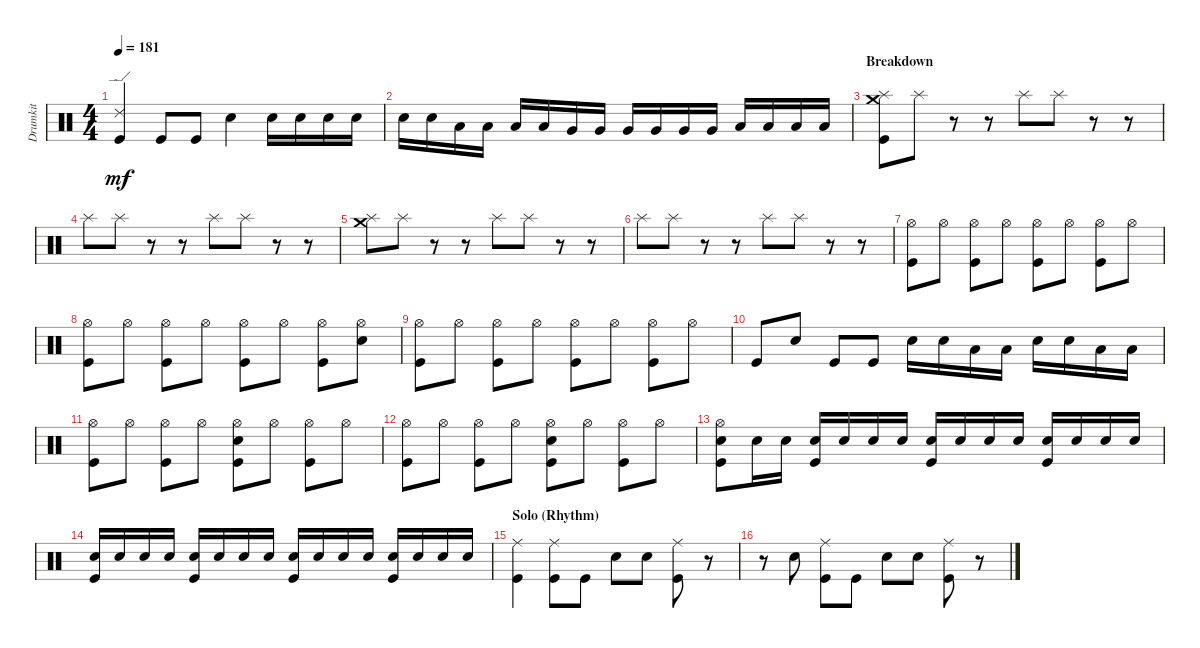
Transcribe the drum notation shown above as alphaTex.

\track ("Drumkit" "Drumkit") {instrument percussion}
\staff {score}
\articulation defaults
\ts (4 4)
\tempo 181
\clef neutral
\ks c
("Kick (hit)" "Ride (edge) 2").4{dy mf} "Kick (hit)".8 "Kick (hit)".8 "Snare (hit) 2".4 "Snare (hit) 2".16 "Snare (hit) 2".16 "Snare (hit) 2".16 "Snare (hit) 2".16 |
"Snare (hit) 2".16 "Snare (hit) 2".16 "Low Tom (hit)".16 "Low Tom (hit)".16 "Low Tom (hit)".16 "Low Tom (hit)".16 "Very Low Tom (hit)".16 "Very Low Tom (hit)".16 "Very Low Tom (hit)".16 "Very Low Tom (hit)".16 "Very Low Tom (hit)".16 "Very Low Tom (hit)".16 "Low Floor Tom (hit)".16 "Low Floor Tom (hit)".16 "Low Floor Tom (hit)".16 "Low Floor Tom (hit)".16 |
\section ("" "Breakdown")
("Crash medium (hit)" "Splash (hit)" "Kick (hit)").8 "Splash (hit)".8 r.8 r.8 "Splash (hit)".8 "Splash (hit)".8 r.8 r.8 |
"Splash (hit)".8 "Splash (hit)".8 r.8 r.8 "Splash (hit)".8 "Splash (hit)".8 r.8 r.8 |
("Crash medium (hit)" "Splash (hit)").8 "Splash (hit)".8 r.8 r.8 "Splash (hit)".8 "Splash (hit)".8 r.8 r.8 |
"Splash (hit)".8 "Splash (hit)".8 r.8 r.8 "Splash (hit)".8 "Splash (hit)".8 r.8 r.8 |
("Kick (hit)" "Hi-Hat (open)").8 "Hi-Hat (open)".8 ("Kick (hit)" "Hi-Hat (open)").8 "Hi-Hat (open)".8 ("Hi-Hat (open)" "Kick (hit)").8 "Hi-Hat (open)".8 ("Hi-Hat (open)" "Kick (hit)").8 "Hi-Hat (open)".8 |
("Kick (hit)" "Hi-Hat (open)").8 "Hi-Hat (open)".8 ("Kick (hit)" "Hi-Hat (open)").8 "Hi-Hat (open)".8 ("Hi-Hat (open)" "Kick (hit)").8 "Hi-Hat (open)".8 ("Hi-Hat (open)" "Kick (hit)").8 ("Hi-Hat (open)" "Snare (hit) 2").8 |
("Kick (hit)" "Hi-Hat (open)").8 "Hi-Hat (open)".8 ("Kick (hit)" "Hi-Hat (open)").8 "Hi-Hat (open)".8 ("Hi-Hat (open)" "Kick (hit)").8 "Hi-Hat (open)".8 ("Hi-Hat (open)" "Kick (hit)").8 "Hi-Hat (open)".8 |
"Kick (hit)".8 "Snare (hit) 2".8 "Kick (hit)".8 "Kick (hit)".8 "Snare (hit) 2".16 "Snare (hit) 2".16 "Low Tom (hit)".16 "Low Tom (hit)".16 "Snare (hit) 2".16 "Snare (hit) 2".16 "Low Tom (hit)".16 "Low Tom (hit)".16 |
("Kick (hit)" "Hi-Hat (open)").8 "Hi-Hat (open)".8 ("Kick (hit)" "Hi-Hat (open)").8 "Hi-Hat (open)".8 ("Hi-Hat (open)" "Kick (hit)" "Snare (hit) 2").8 "Hi-Hat (open)".8 ("Hi-Hat (open)" "Kick (hit)").8 "Hi-Hat (open)".8 |
("Kick (hit)" "Hi-Hat (open)").8 "Hi-Hat (open)".8 ("Kick (hit)" "Hi-Hat (open)").8 "Hi-Hat (open)".8 ("Hi-Hat (open)" "Kick (hit)" "Snare (hit) 2").8 "Hi-Hat (open)".8 ("Hi-Hat (open)" "Kick (hit)").8 "Hi-Hat (open)".8 |
("Kick (hit)" "Hi-Hat (open)" "Snare (hit) 2").8 "Snare (hit) 2".16 "Snare (hit) 2".16 ("Snare (hit) 2" "Kick (hit)").16 "Snare (hit) 2".16 "Snare (hit) 2".16 "Snare (hit) 2".16 ("Snare (hit) 2" "Kick (hit)").16 "Snare (hit) 2".16 "Snare (hit) 2".16 "Snare (hit) 2".16 ("Snare (hit) 2" "Kick (hit)").16 "Snare (hit) 2".16 "Snare (hit) 2".16 "Snare (hit) 2".16 |
("Snare (hit) 2" "Kick (hit)").16 "Snare (hit) 2".16 "Snare (hit) 2".16 "Snare (hit) 2".16 ("Snare (hit) 2" "Kick (hit)").16 "Snare (hit) 2".16 "Snare (hit) 2".16 "Snare (hit) 2".16 ("Snare (hit) 2" "Kick (hit)").16 "Snare (hit) 2".16 "Snare (hit) 2".16 "Snare (hit) 2".16 ("Snare (hit) 2" "Kick (hit)").16 "Snare (hit) 2".16 "Snare (hit) 2".16 "Snare (hit) 2".16 |
\section ("" "Solo (Rhythm)")
("Kick (hit)" "Ride (middle)").4 ("Kick (hit)" "Ride (middle)").8 "Kick (hit)".8 "Snare (hit) 2".8 "Snare (hit) 2".8 ("Kick (hit)" "Ride (middle)").8 r.8 |
r.8 "Snare (hit) 2".8 ("Kick (hit)" "Ride (middle)").8 "Kick (hit)".8 "Snare (hit) 2".8 "Snare (hit) 2".8 ("Kick (hit)" "Ride (middle)").8 r.8
